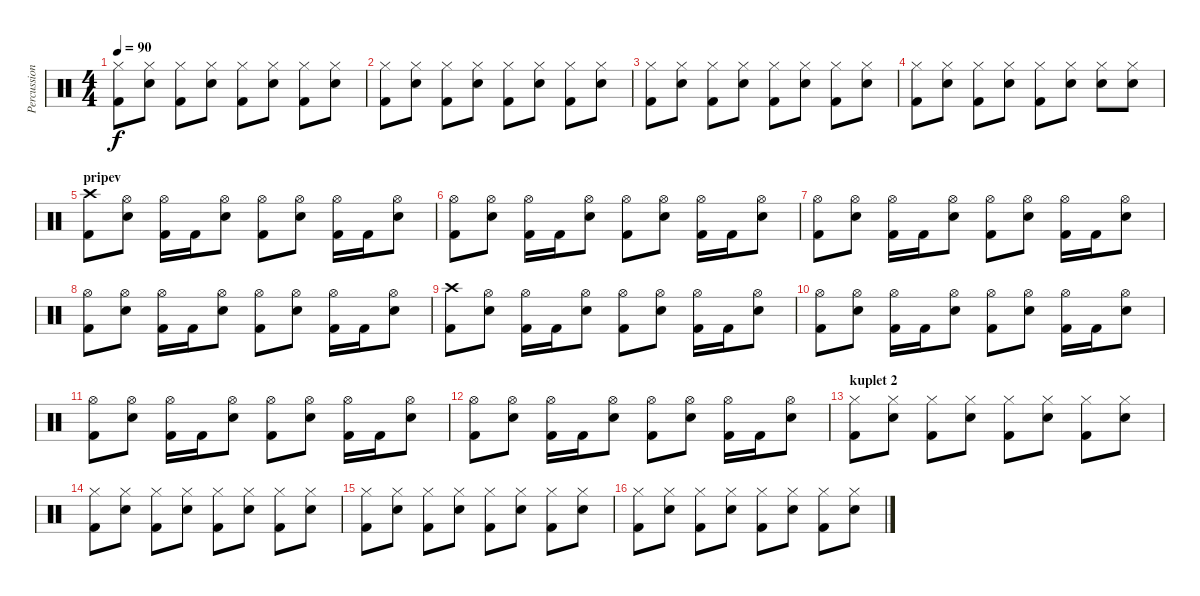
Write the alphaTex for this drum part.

\track ("Percussion" "Percussion") {instrument percussion}
\staff {score}
\articulation defaults
\ts (4 4)
\tempo 90
\clef neutral
\ks c
("Kick (hit) 2" "Hi-Hat (closed)").8{dy f} ("Snare (hit) 2" "Hi-Hat (closed)").8 ("Kick (hit) 2" "Hi-Hat (closed)").8 ("Snare (hit) 2" "Hi-Hat (closed)").8 ("Kick (hit) 2" "Hi-Hat (closed)").8 ("Snare (hit) 2" "Hi-Hat (closed)").8 ("Kick (hit) 2" "Hi-Hat (closed)").8 ("Snare (hit) 2" "Hi-Hat (closed)").8 |
("Kick (hit) 2" "Hi-Hat (closed)").8 ("Snare (hit) 2" "Hi-Hat (closed)").8 ("Kick (hit) 2" "Hi-Hat (closed)").8 ("Snare (hit) 2" "Hi-Hat (closed)").8 ("Kick (hit) 2" "Hi-Hat (closed)").8 ("Snare (hit) 2" "Hi-Hat (closed)").8 ("Kick (hit) 2" "Hi-Hat (closed)").8 ("Snare (hit) 2" "Hi-Hat (closed)").8 |
("Kick (hit) 2" "Hi-Hat (closed)").8 ("Snare (hit) 2" "Hi-Hat (closed)").8 ("Kick (hit) 2" "Hi-Hat (closed)").8 ("Snare (hit) 2" "Hi-Hat (closed)").8 ("Kick (hit) 2" "Hi-Hat (closed)").8 ("Snare (hit) 2" "Hi-Hat (closed)").8 ("Kick (hit) 2" "Hi-Hat (closed)").8 ("Snare (hit) 2" "Hi-Hat (closed)").8 |
("Kick (hit) 2" "Hi-Hat (closed)").8 ("Snare (hit) 2" "Hi-Hat (closed)").8 ("Kick (hit) 2" "Hi-Hat (closed)").8 ("Snare (hit) 2" "Hi-Hat (closed)").8 ("Kick (hit) 2" "Hi-Hat (closed)").8 ("Snare (hit) 2" "Hi-Hat (closed)").8 ("Hi-Hat (closed)" "Snare (hit) 2").8 ("Snare (hit) 2" "Hi-Hat (closed)").8 |
\section ("" "pripev")
("Kick (hit) 2" "Crash high (hit)").8 ("Snare (hit) 2" "Hi-Hat (open)").8 ("Kick (hit) 2" "Hi-Hat (open)").16 "Kick (hit) 2".16 ("Snare (hit) 2" "Hi-Hat (open)").8 ("Kick (hit) 2" "Hi-Hat (open)").8 ("Snare (hit) 2" "Hi-Hat (open)").8 ("Kick (hit) 2" "Hi-Hat (open)").16 "Kick (hit) 2".16 ("Snare (hit) 2" "Hi-Hat (open)").8 |
("Kick (hit) 2" "Hi-Hat (open)").8 ("Snare (hit) 2" "Hi-Hat (open)").8 ("Kick (hit) 2" "Hi-Hat (open)").16 "Kick (hit) 2".16 ("Snare (hit) 2" "Hi-Hat (open)").8 ("Kick (hit) 2" "Hi-Hat (open)").8 ("Snare (hit) 2" "Hi-Hat (open)").8 ("Kick (hit) 2" "Hi-Hat (open)").16 "Kick (hit) 2".16 ("Snare (hit) 2" "Hi-Hat (open)").8 |
("Kick (hit) 2" "Hi-Hat (open)").8 ("Snare (hit) 2" "Hi-Hat (open)").8 ("Kick (hit) 2" "Hi-Hat (open)").16 "Kick (hit) 2".16 ("Snare (hit) 2" "Hi-Hat (open)").8 ("Kick (hit) 2" "Hi-Hat (open)").8 ("Snare (hit) 2" "Hi-Hat (open)").8 ("Kick (hit) 2" "Hi-Hat (open)").16 "Kick (hit) 2".16 ("Snare (hit) 2" "Hi-Hat (open)").8 |
("Kick (hit) 2" "Hi-Hat (open)").8 ("Snare (hit) 2" "Hi-Hat (open)").8 ("Kick (hit) 2" "Hi-Hat (open)").16 "Kick (hit) 2".16 ("Snare (hit) 2" "Hi-Hat (open)").8 ("Kick (hit) 2" "Hi-Hat (open)").8 ("Snare (hit) 2" "Hi-Hat (open)").8 ("Kick (hit) 2" "Hi-Hat (open)").16 "Kick (hit) 2".16 ("Snare (hit) 2" "Hi-Hat (open)").8 |
("Kick (hit) 2" "Crash high (hit)").8 ("Snare (hit) 2" "Hi-Hat (open)").8 ("Kick (hit) 2" "Hi-Hat (open)").16 "Kick (hit) 2".16 ("Snare (hit) 2" "Hi-Hat (open)").8 ("Kick (hit) 2" "Hi-Hat (open)").8 ("Snare (hit) 2" "Hi-Hat (open)").8 ("Kick (hit) 2" "Hi-Hat (open)").16 "Kick (hit) 2".16 ("Snare (hit) 2" "Hi-Hat (open)").8 |
("Kick (hit) 2" "Hi-Hat (open)").8 ("Snare (hit) 2" "Hi-Hat (open)").8 ("Kick (hit) 2" "Hi-Hat (open)").16 "Kick (hit) 2".16 ("Snare (hit) 2" "Hi-Hat (open)").8 ("Kick (hit) 2" "Hi-Hat (open)").8 ("Snare (hit) 2" "Hi-Hat (open)").8 ("Kick (hit) 2" "Hi-Hat (open)").16 "Kick (hit) 2".16 ("Snare (hit) 2" "Hi-Hat (open)").8 |
("Kick (hit) 2" "Hi-Hat (open)").8 ("Snare (hit) 2" "Hi-Hat (open)").8 ("Kick (hit) 2" "Hi-Hat (open)").16 "Kick (hit) 2".16 ("Snare (hit) 2" "Hi-Hat (open)").8 ("Kick (hit) 2" "Hi-Hat (open)").8 ("Snare (hit) 2" "Hi-Hat (open)").8 ("Kick (hit) 2" "Hi-Hat (open)").16 "Kick (hit) 2".16 ("Snare (hit) 2" "Hi-Hat (open)").8 |
("Kick (hit) 2" "Hi-Hat (open)").8 ("Snare (hit) 2" "Hi-Hat (open)").8 ("Kick (hit) 2" "Hi-Hat (open)").16 "Kick (hit) 2".16 ("Snare (hit) 2" "Hi-Hat (open)").8 ("Kick (hit) 2" "Hi-Hat (open)").8 ("Snare (hit) 2" "Hi-Hat (open)").8 ("Kick (hit) 2" "Hi-Hat (open)").16 "Kick (hit) 2".16 ("Snare (hit) 2" "Hi-Hat (open)").8 |
\section ("" "kuplet 2")
("Kick (hit) 2" "Hi-Hat (closed)").8 ("Snare (hit) 2" "Hi-Hat (closed)").8 ("Kick (hit) 2" "Hi-Hat (closed)").8 ("Snare (hit) 2" "Hi-Hat (closed)").8 ("Kick (hit) 2" "Hi-Hat (closed)").8 ("Snare (hit) 2" "Hi-Hat (closed)").8 ("Kick (hit) 2" "Hi-Hat (closed)").8 ("Snare (hit) 2" "Hi-Hat (closed)").8 |
("Kick (hit) 2" "Hi-Hat (closed)").8 ("Snare (hit) 2" "Hi-Hat (closed)").8 ("Kick (hit) 2" "Hi-Hat (closed)").8 ("Snare (hit) 2" "Hi-Hat (closed)").8 ("Kick (hit) 2" "Hi-Hat (closed)").8 ("Snare (hit) 2" "Hi-Hat (closed)").8 ("Kick (hit) 2" "Hi-Hat (closed)").8 ("Snare (hit) 2" "Hi-Hat (closed)").8 |
("Kick (hit) 2" "Hi-Hat (closed)").8 ("Snare (hit) 2" "Hi-Hat (closed)").8 ("Kick (hit) 2" "Hi-Hat (closed)").8 ("Snare (hit) 2" "Hi-Hat (closed)").8 ("Kick (hit) 2" "Hi-Hat (closed)").8 ("Snare (hit) 2" "Hi-Hat (closed)").8 ("Kick (hit) 2" "Hi-Hat (closed)").8 ("Snare (hit) 2" "Hi-Hat (closed)").8 |
("Kick (hit) 2" "Hi-Hat (closed)").8 ("Snare (hit) 2" "Hi-Hat (closed)").8 ("Kick (hit) 2" "Hi-Hat (closed)").8 ("Snare (hit) 2" "Hi-Hat (closed)").8 ("Kick (hit) 2" "Hi-Hat (closed)").8 ("Snare (hit) 2" "Hi-Hat (closed)").8 ("Kick (hit) 2" "Hi-Hat (closed)").8 ("Snare (hit) 2" "Hi-Hat (closed)").8
